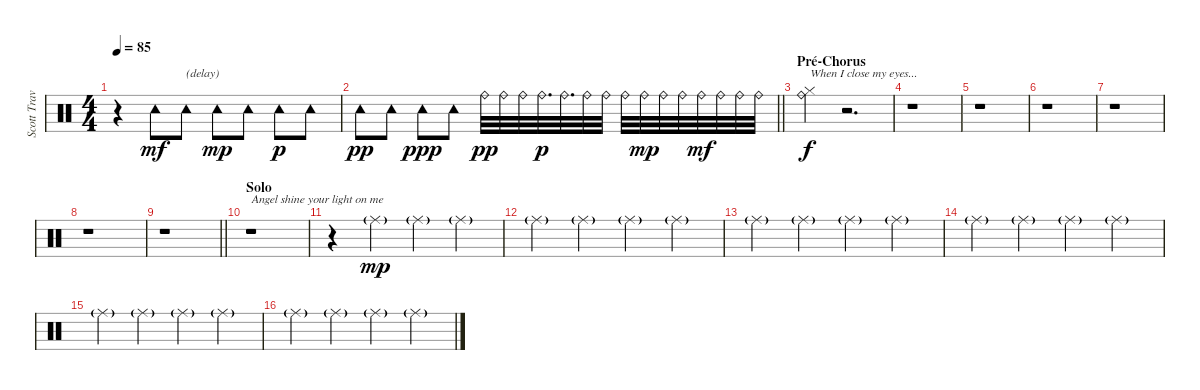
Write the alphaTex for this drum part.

\track ("Scott Travis" "Scott Trav") {instrument percussion}
\staff {score}
\articulation defaults
\ts (4 4)
\tempo 85
\clef neutral
\ks c
r.4{dy ppp} "Tambourine (hit)".8{dy mf} "Tambourine (hit)".8{txt "(delay)"} "Tambourine (hit)".8{dy mp} "Tambourine (hit)".8 "Tambourine (hit)".8{dy p} "Tambourine (hit)".8 |
\barLineRight lightlight "Tambourine (hit)".8{dy pp} "Tambourine (hit)".8 "Tambourine (hit)".8{dy ppp} "Tambourine (hit)".8 "Ride (bell)".32{dy pp} "Ride (bell)".32 "Ride (bell)".32 "Ride (bell)".32{d dy p} "Ride (bell)".32{d} "Ride (bell)".32 "Ride (bell)".32 "Ride (bell)".32 "Ride (bell)".32{dy mp} "Ride (bell)".32 "Ride (bell)".32 "Ride (bell)".32{dy mf} "Ride (bell)".32 "Ride (bell)".32 "Ride (bell)".32
|
\section ("" "Pré-Chorus")
("Ride (bell)" "Hi-Hat (closed)").4{txt "When I close my eyes..." dy f} r.2{d} |
r.1 |
r.1 |
r.1 |
r.1 |
r.1 |
\barLineRight lightlight
r.1 |
\section ("" "Solo")
r.1{txt "Angel shine your light on me"} |
r.4 "Ride (middle)"{g}.4{dy mp} "Ride (middle)"{g}.4 "Ride (middle)"{g}.4 |
"Ride (middle)"{g}.4 "Ride (middle)"{g}.4 "Ride (middle)"{g}.4 "Ride (middle)"{g}.4 |
"Ride (middle)"{g}.4 "Ride (middle)"{g}.4 "Ride (middle)"{g}.4 "Ride (middle)"{g}.4 |
"Ride (middle)"{g}.4 "Ride (middle)"{g}.4 "Ride (middle)"{g}.4 "Ride (middle)"{g}.4 |
"Ride (middle)"{g}.4 "Ride (middle)"{g}.4 "Ride (middle)"{g}.4 "Ride (middle)"{g}.4 |
"Ride (middle)"{g}.4 "Ride (middle)"{g}.4 "Ride (middle)"{g}.4 "Ride (middle)"{g}.4
